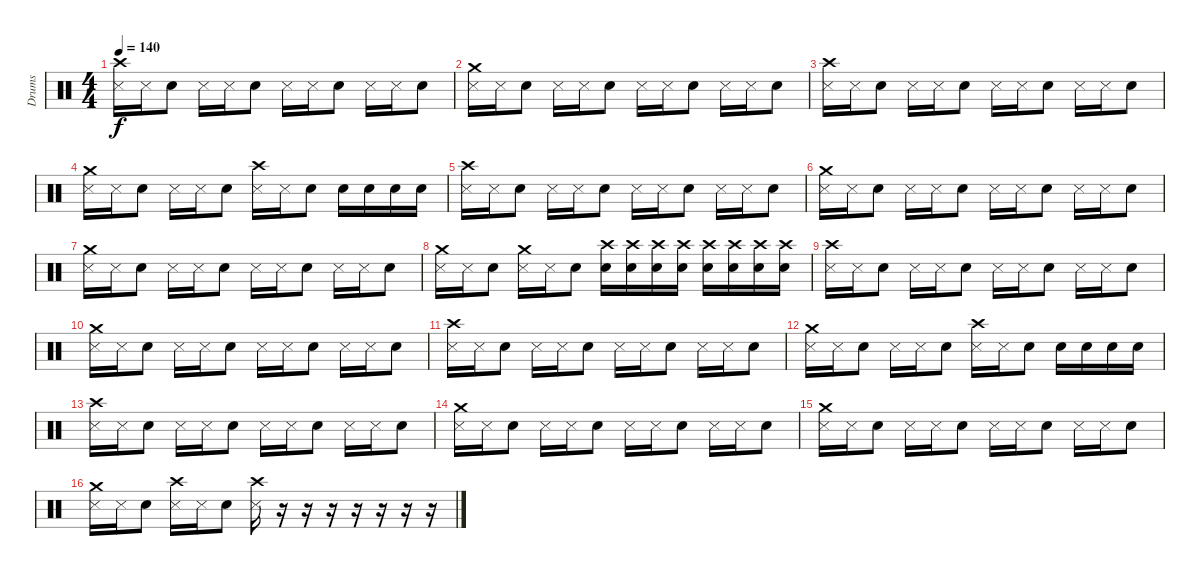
\track ("Drums" "Drums") {instrument percussion}
\staff {score}
\articulation defaults
\ts (4 4)
\tempo 140
\clef neutral
\ks c
("Crash high (hit)" "Metronome (hit)").16{dy f} "Metronome (hit)".16 "Electric Snare (hit)".8 "Metronome (hit)".16 "Metronome (hit)".16 "Electric Snare (hit)".8 "Metronome (hit)".16 "Metronome (hit)".16 "Electric Snare (hit)".8 "Metronome (hit)".16 "Metronome (hit)".16 "Electric Snare (hit)".8 |
("Crash medium (hit)" "Metronome (hit)").16 "Metronome (hit)".16 "Electric Snare (hit)".8 "Metronome (hit)".16 "Metronome (hit)".16 "Electric Snare (hit)".8 "Metronome (hit)".16 "Metronome (hit)".16 "Electric Snare (hit)".8 "Metronome (hit)".16 "Metronome (hit)".16 "Electric Snare (hit)".8 |
("Crash high (hit)" "Metronome (hit)").16 "Metronome (hit)".16 "Electric Snare (hit)".8 "Metronome (hit)".16 "Metronome (hit)".16 "Electric Snare (hit)".8 "Metronome (hit)".16 "Metronome (hit)".16 "Electric Snare (hit)".8 "Metronome (hit)".16 "Metronome (hit)".16 "Electric Snare (hit)".8 |
("Crash medium (hit)" "Metronome (hit)").16 "Metronome (hit)".16 "Electric Snare (hit)".8 "Metronome (hit)".16 "Metronome (hit)".16 "Electric Snare (hit)".8 ("Crash high (hit)" "Metronome (hit)").16 "Metronome (hit)".16 "Electric Snare (hit)".8 "Electric Snare (hit)".16 "Electric Snare (hit)".16 "Electric Snare (hit)".16 "Electric Snare (hit)".16 |
("Crash high (hit)" "Metronome (hit)").16 "Metronome (hit)".16 "Electric Snare (hit)".8 "Metronome (hit)".16 "Metronome (hit)".16 "Electric Snare (hit)".8 "Metronome (hit)".16 "Metronome (hit)".16 "Electric Snare (hit)".8 "Metronome (hit)".16 "Metronome (hit)".16 "Electric Snare (hit)".8 |
("Crash medium (hit)" "Metronome (hit)").16 "Metronome (hit)".16 "Electric Snare (hit)".8 "Metronome (hit)".16 "Metronome (hit)".16 "Electric Snare (hit)".8 "Metronome (hit)".16 "Metronome (hit)".16 "Electric Snare (hit)".8 "Metronome (hit)".16 "Metronome (hit)".16 "Electric Snare (hit)".8 |
("Crash medium (hit)" "Metronome (hit)").16 "Metronome (hit)".16 "Electric Snare (hit)".8 "Metronome (hit)".16 "Metronome (hit)".16 "Electric Snare (hit)".8 "Metronome (hit)".16 "Metronome (hit)".16 "Electric Snare (hit)".8 "Metronome (hit)".16 "Metronome (hit)".16 "Electric Snare (hit)".8 |
("Crash medium (hit)" "Metronome (hit)").16 "Metronome (hit)".16 "Electric Snare (hit)".8 ("Crash medium (hit)" "Metronome (hit)").16 "Metronome (hit)".16 "Electric Snare (hit)".8 ("Crash high (hit)" "Electric Snare (hit)").16 ("Crash high (hit)" "Electric Snare (hit)").16 ("Crash high (hit)" "Electric Snare (hit)").16 ("Crash high (hit)" "Electric Snare (hit)").16 ("Crash high (hit)" "Electric Snare (hit)").16 ("Crash high (hit)" "Electric Snare (hit)").16 ("Crash high (hit)" "Electric Snare (hit)").16 ("Crash high (hit)" "Electric Snare (hit)").16 |
("Crash high (hit)" "Metronome (hit)").16 "Metronome (hit)".16 "Electric Snare (hit)".8 "Metronome (hit)".16 "Metronome (hit)".16 "Electric Snare (hit)".8 "Metronome (hit)".16 "Metronome (hit)".16 "Electric Snare (hit)".8 "Metronome (hit)".16 "Metronome (hit)".16 "Electric Snare (hit)".8 |
("Crash medium (hit)" "Metronome (hit)").16 "Metronome (hit)".16 "Electric Snare (hit)".8 "Metronome (hit)".16 "Metronome (hit)".16 "Electric Snare (hit)".8 "Metronome (hit)".16 "Metronome (hit)".16 "Electric Snare (hit)".8 "Metronome (hit)".16 "Metronome (hit)".16 "Electric Snare (hit)".8 |
("Crash high (hit)" "Metronome (hit)").16 "Metronome (hit)".16 "Electric Snare (hit)".8 "Metronome (hit)".16 "Metronome (hit)".16 "Electric Snare (hit)".8 "Metronome (hit)".16 "Metronome (hit)".16 "Electric Snare (hit)".8 "Metronome (hit)".16 "Metronome (hit)".16 "Electric Snare (hit)".8 |
("Crash medium (hit)" "Metronome (hit)").16 "Metronome (hit)".16 "Electric Snare (hit)".8 "Metronome (hit)".16 "Metronome (hit)".16 "Electric Snare (hit)".8 ("Crash high (hit)" "Metronome (hit)").16 "Metronome (hit)".16 "Electric Snare (hit)".8 "Electric Snare (hit)".16 "Electric Snare (hit)".16 "Electric Snare (hit)".16 "Electric Snare (hit)".16 |
("Crash high (hit)" "Metronome (hit)").16 "Metronome (hit)".16 "Electric Snare (hit)".8 "Metronome (hit)".16 "Metronome (hit)".16 "Electric Snare (hit)".8 "Metronome (hit)".16 "Metronome (hit)".16 "Electric Snare (hit)".8 "Metronome (hit)".16 "Metronome (hit)".16 "Electric Snare (hit)".8 |
("Crash medium (hit)" "Metronome (hit)").16 "Metronome (hit)".16 "Electric Snare (hit)".8 "Metronome (hit)".16 "Metronome (hit)".16 "Electric Snare (hit)".8 "Metronome (hit)".16 "Metronome (hit)".16 "Electric Snare (hit)".8 "Metronome (hit)".16 "Metronome (hit)".16 "Electric Snare (hit)".8 |
("Crash medium (hit)" "Metronome (hit)").16 "Metronome (hit)".16 "Electric Snare (hit)".8 "Metronome (hit)".16 "Metronome (hit)".16 "Electric Snare (hit)".8 "Metronome (hit)".16 "Metronome (hit)".16 "Electric Snare (hit)".8 "Metronome (hit)".16 "Metronome (hit)".16 "Electric Snare (hit)".8 |
("Crash medium (hit)" "Metronome (hit)").16 "Metronome (hit)".16 "Electric Snare (hit)".8 ("Crash high (hit)" "Metronome (hit)").16 "Metronome (hit)".16 "Electric Snare (hit)".8 ("Crash high (hit)" "Metronome (hit)").16 r.16 r.16 r.16 r.16 r.16 r.16 r.16
